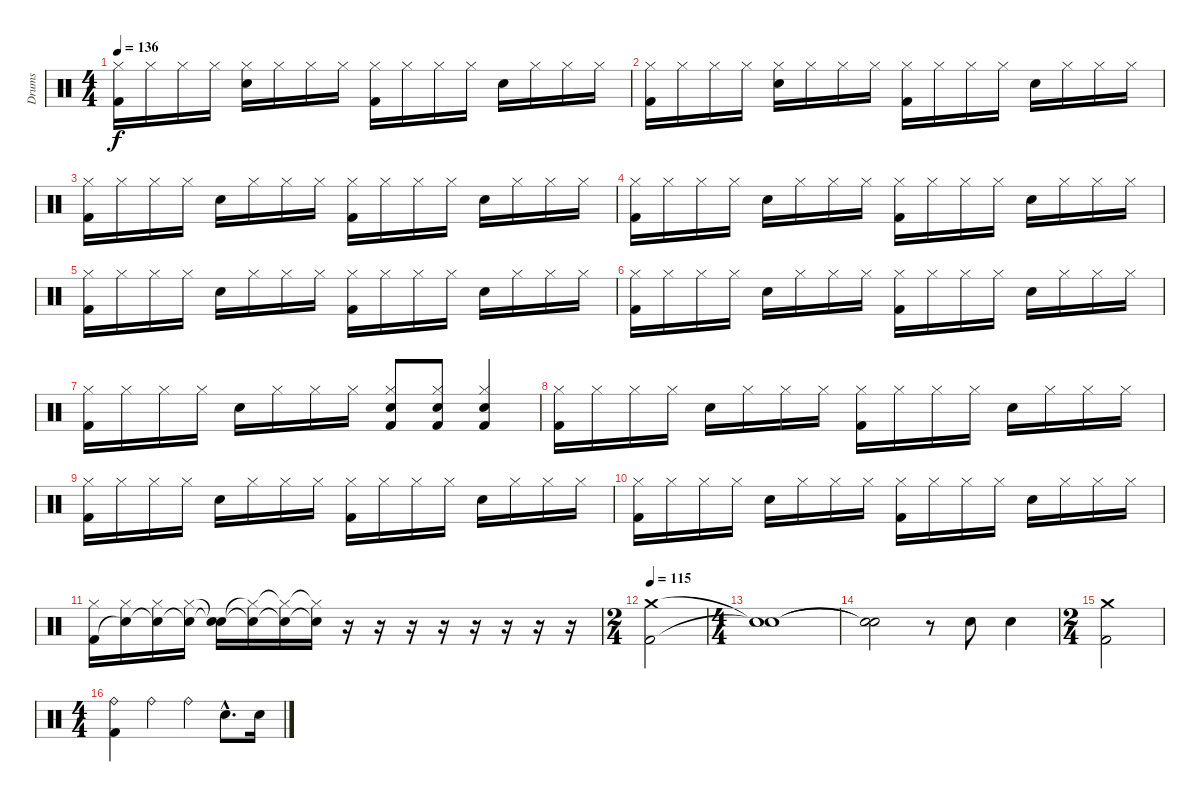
\track ("Drums" "Drums") {instrument percussion}
\staff {score}
\articulation defaults
\ts (4 4)
\tempo 136
\clef neutral
\ks c
("Kick (hit) 2" "Hi-Hat (closed)").16{dy f} "Hi-Hat (closed)".16 "Hi-Hat (closed)".16 "Hi-Hat (closed)".16 ("Electric Snare (hit)" "Hi-Hat (closed)").16 "Hi-Hat (closed)".16 "Hi-Hat (closed)".16 "Hi-Hat (closed)".16 ("Kick (hit) 2" "Hi-Hat (closed)").16 "Hi-Hat (closed)".16 "Hi-Hat (closed)".16 "Hi-Hat (closed)".16 "Electric Snare (hit)".16 "Hi-Hat (closed)".16 "Hi-Hat (closed)".16 "Hi-Hat (closed)".16 |
("Kick (hit) 2" "Hi-Hat (closed)").16 "Hi-Hat (closed)".16 "Hi-Hat (closed)".16 "Hi-Hat (closed)".16 ("Electric Snare (hit)" "Hi-Hat (closed)").16 "Hi-Hat (closed)".16 "Hi-Hat (closed)".16 "Hi-Hat (closed)".16 ("Kick (hit) 2" "Hi-Hat (closed)").16 "Hi-Hat (closed)".16 "Hi-Hat (closed)".16 "Hi-Hat (closed)".16 "Electric Snare (hit)".16 "Hi-Hat (closed)".16 "Hi-Hat (closed)".16 "Hi-Hat (closed)".16 |
("Kick (hit) 2" "Hi-Hat (closed)").16 "Hi-Hat (closed)".16 "Hi-Hat (closed)".16 "Hi-Hat (closed)".16 "Electric Snare (hit)".16 "Hi-Hat (closed)".16 "Hi-Hat (closed)".16 "Hi-Hat (closed)".16 ("Kick (hit) 2" "Hi-Hat (closed)").16 "Hi-Hat (closed)".16 "Hi-Hat (closed)".16 "Hi-Hat (closed)".16 "Electric Snare (hit)".16 "Hi-Hat (closed)".16 "Hi-Hat (closed)".16 "Hi-Hat (closed)".16 |
("Kick (hit) 2" "Hi-Hat (closed)").16 "Hi-Hat (closed)".16 "Hi-Hat (closed)".16 "Hi-Hat (closed)".16 "Electric Snare (hit)".16 "Hi-Hat (closed)".16 "Hi-Hat (closed)".16 "Hi-Hat (closed)".16 ("Kick (hit) 2" "Hi-Hat (closed)").16 "Hi-Hat (closed)".16 "Hi-Hat (closed)".16 "Hi-Hat (closed)".16 "Electric Snare (hit)".16 "Hi-Hat (closed)".16 "Hi-Hat (closed)".16 "Hi-Hat (closed)".16 |
("Kick (hit) 2" "Hi-Hat (closed)").16 "Hi-Hat (closed)".16 "Hi-Hat (closed)".16 "Hi-Hat (closed)".16 "Electric Snare (hit)".16 "Hi-Hat (closed)".16 "Hi-Hat (closed)".16 "Hi-Hat (closed)".16 ("Kick (hit) 2" "Hi-Hat (closed)").16 "Hi-Hat (closed)".16 "Hi-Hat (closed)".16 "Hi-Hat (closed)".16 "Electric Snare (hit)".16 "Hi-Hat (closed)".16 "Hi-Hat (closed)".16 "Hi-Hat (closed)".16 |
("Kick (hit) 2" "Hi-Hat (closed)").16 "Hi-Hat (closed)".16 "Hi-Hat (closed)".16 "Hi-Hat (closed)".16 "Electric Snare (hit)".16 "Hi-Hat (closed)".16 "Hi-Hat (closed)".16 "Hi-Hat (closed)".16 ("Kick (hit) 2" "Hi-Hat (closed)").16 "Hi-Hat (closed)".16 "Hi-Hat (closed)".16 "Hi-Hat (closed)".16 "Electric Snare (hit)".16 "Hi-Hat (closed)".16 "Hi-Hat (closed)".16 "Hi-Hat (closed)".16 |
("Kick (hit) 2" "Hi-Hat (closed)").16 "Hi-Hat (closed)".16 "Hi-Hat (closed)".16 "Hi-Hat (closed)".16 "Electric Snare (hit)".16 "Hi-Hat (closed)".16 "Hi-Hat (closed)".16 "Hi-Hat (closed)".16 ("Electric Snare (hit)" "Kick (hit) 2" "Hi-Hat (closed)").8 ("Electric Snare (hit)" "Kick (hit) 2" "Hi-Hat (closed)").8 ("Electric Snare (hit)" "Kick (hit) 2" "Hi-Hat (closed)").4 |
("Kick (hit) 2" "Hi-Hat (closed)").16{volume 14} "Hi-Hat (closed)".16 "Hi-Hat (closed)".16 "Hi-Hat (closed)".16 "Electric Snare (hit)".16 "Hi-Hat (closed)".16 "Hi-Hat (closed)".16 "Hi-Hat (closed)".16 ("Kick (hit) 2" "Hi-Hat (closed)").16 "Hi-Hat (closed)".16 "Hi-Hat (closed)".16 "Hi-Hat (closed)".16 "Electric Snare (hit)".16 "Hi-Hat (closed)".16 "Hi-Hat (closed)".16 "Hi-Hat (closed)".16 |
("Kick (hit) 2" "Hi-Hat (closed)").16 "Hi-Hat (closed)".16 "Hi-Hat (closed)".16 "Hi-Hat (closed)".16 "Electric Snare (hit)".16 "Hi-Hat (closed)".16 "Hi-Hat (closed)".16 "Hi-Hat (closed)".16 ("Kick (hit) 2" "Hi-Hat (closed)").16 "Hi-Hat (closed)".16 "Hi-Hat (closed)".16 "Hi-Hat (closed)".16 "Electric Snare (hit)".16 "Hi-Hat (closed)".16 "Hi-Hat (closed)".16 "Hi-Hat (closed)".16 |
("Kick (hit) 2" "Hi-Hat (closed)").16 "Hi-Hat (closed)".16 "Hi-Hat (closed)".16 "Hi-Hat (closed)".16 "Electric Snare (hit)".16 "Hi-Hat (closed)".16 "Hi-Hat (closed)".16 "Hi-Hat (closed)".16 ("Kick (hit) 2" "Hi-Hat (closed)").16 "Hi-Hat (closed)".16 "Hi-Hat (closed)".16 "Hi-Hat (closed)".16 "Electric Snare (hit)".16 "Hi-Hat (closed)".16 "Hi-Hat (closed)".16 "Hi-Hat (closed)".16 |
("Kick (hit) 2" "Hi-Hat (closed)").16 ("Snare (hit)"{t} "Hi-Hat (closed)").16 ("Snare (hit)"{t} "Hi-Hat (closed)").16 ("Snare (hit)"{t} "Hi-Hat (closed)").16 ("Electric Snare (hit)"{t} "Snare (hit)"{t}).16 ("Snare (hit)"{t} "Hi-Hat (closed)"{t}).16 ("Snare (hit)"{t} "Hi-Hat (closed)"{t}).16 ("Snare (hit)"{t} "Hi-Hat (closed)"{t}).16 r.16 r.16 r.16 r.16 r.16 r.16 r.16 r.16 |
\ts (2 4)
\tempo 115
("Kick (hit) 2" "Crash medium (hit)").2 |
\ts (4 4)
("Snare (hit)"{t} "Snare (hit)"{t}).1 |
("Snare (hit)"{t} "Snare (hit)"{t}).2 r.8 "Snare (hit) 2".8 "Snare (hit) 2".4 |
\ts (2 4)
("Kick (hit) 2" "Crash medium (hit)").2 |
\ts (4 4)
("Kick (hit) 2" "Ride (bell)").4 "Ride (bell)".4 "Ride (bell)".4 "Snare (hit) 2"{hac}.8{d} "Snare (hit) 2".16
